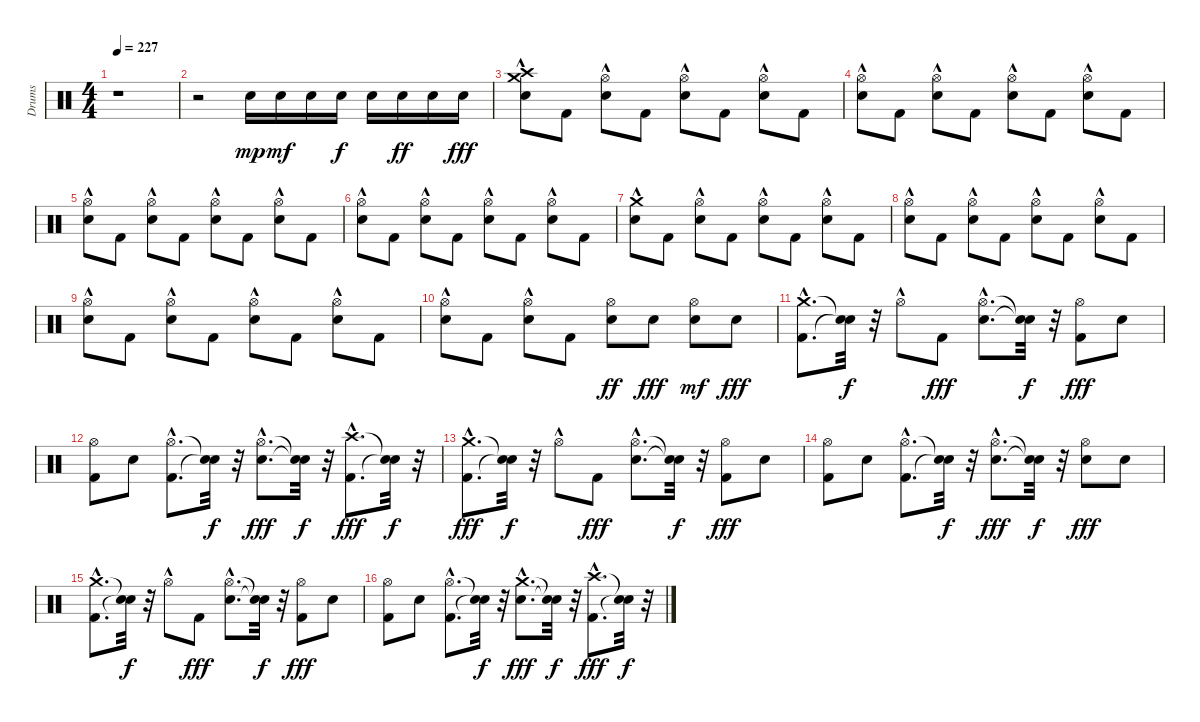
\track ("Drums" "Drums") {instrument percussion}
\staff {score}
\articulation defaults
\ts (4 4)
\tempo 227
\clef neutral
\ks c
r.1{dy fff} |
r.2 "Snare (hit) 2".16{dy mp} "Snare (hit) 2".16{dy mf} "Snare (hit) 2".16 "Snare (hit) 2".16{dy f} "Snare (hit) 2".16 "Snare (hit) 2".16{dy ff} "Snare (hit) 2".16 "Snare (hit) 2".16{dy fff} |
("Snare (hit) 2"{hac} "Crash medium (hit)"{hac} "Crash high (hit)"{hac}).8 "Kick (hit) 2".8 ("Snare (hit) 2"{hac} "Hi-Hat (open)"{hac}).8 "Kick (hit) 2".8 ("Snare (hit) 2"{hac} "Hi-Hat (open)"{hac}).8 "Kick (hit) 2".8 ("Snare (hit) 2"{hac} "Hi-Hat (open)"{hac}).8 "Kick (hit) 2".8 |
("Snare (hit) 2"{hac} "Hi-Hat (open)"{hac}).8 "Kick (hit) 2".8 ("Snare (hit) 2"{hac} "Hi-Hat (open)"{hac}).8 "Kick (hit) 2".8 ("Snare (hit) 2"{hac} "Hi-Hat (open)"{hac}).8 "Kick (hit) 2".8 ("Snare (hit) 2"{hac} "Hi-Hat (open)"{hac}).8 "Kick (hit) 2".8 |
("Snare (hit) 2"{hac} "Hi-Hat (open)"{hac}).8 "Kick (hit) 2".8 ("Snare (hit) 2"{hac} "Hi-Hat (open)"{hac}).8 "Kick (hit) 2".8 ("Snare (hit) 2"{hac} "Hi-Hat (open)"{hac}).8 "Kick (hit) 2".8 ("Snare (hit) 2"{hac} "Hi-Hat (open)"{hac}).8 "Kick (hit) 2".8 |
("Snare (hit) 2"{hac} "Hi-Hat (open)"{hac}).8 "Kick (hit) 2".8 ("Snare (hit) 2"{hac} "Hi-Hat (open)"{hac}).8 "Kick (hit) 2".8 ("Snare (hit) 2"{hac} "Hi-Hat (open)"{hac}).8 "Kick (hit) 2".8 ("Snare (hit) 2"{hac} "Hi-Hat (open)"{hac}).8 "Kick (hit) 2".8 |
("Snare (hit) 2"{hac} "Crash medium (hit)"{hac}).8 "Kick (hit) 2".8 ("Snare (hit) 2"{hac} "Hi-Hat (open)"{hac}).8 "Kick (hit) 2".8 ("Snare (hit) 2"{hac} "Hi-Hat (open)"{hac}).8 "Kick (hit) 2".8 ("Snare (hit) 2"{hac} "Hi-Hat (open)"{hac}).8 "Kick (hit) 2".8 |
("Snare (hit) 2"{hac} "Hi-Hat (open)"{hac}).8 "Kick (hit) 2".8 ("Snare (hit) 2"{hac} "Hi-Hat (open)"{hac}).8 "Kick (hit) 2".8 ("Snare (hit) 2"{hac} "Hi-Hat (open)"{hac}).8 "Kick (hit) 2".8 ("Snare (hit) 2"{hac} "Hi-Hat (open)"{hac}).8 "Kick (hit) 2".8 |
("Snare (hit) 2"{hac} "Hi-Hat (open)"{hac}).8 "Kick (hit) 2".8 ("Snare (hit) 2"{hac} "Hi-Hat (open)"{hac}).8 "Kick (hit) 2".8 ("Snare (hit) 2"{hac} "Hi-Hat (open)"{hac}).8 "Kick (hit) 2".8 ("Snare (hit) 2"{hac} "Hi-Hat (open)"{hac}).8 "Kick (hit) 2".8 |
("Snare (hit) 2"{hac} "Hi-Hat (open)"{hac}).8 "Kick (hit) 2".8 ("Snare (hit) 2"{hac} "Hi-Hat (open)"{hac}).8 "Kick (hit) 2".8 ("Snare (hit) 2" "Hi-Hat (open)").8{dy ff} "Snare (hit) 2".8{dy fff} ("Snare (hit) 2" "Hi-Hat (open)").8{dy mf} "Snare (hit) 2".8{dy fff} |
("Kick (hit) 2"{hac} "Crash medium (hit)"{hac}).8{d} ("Snare (hit)"{t} "Snare (hit)"{t}).32{dy f} r.32 "Hi-Hat (open)"{hac}.8 "Kick (hit) 2".8{dy fff} ("Snare (hit) 2"{hac} "Hi-Hat (open)"{hac}).8{d} ("Snare (hit)"{t} "Snare (hit)"{t}).32{dy f} r.32 ("Kick (hit) 2" "Hi-Hat (open)").8{dy fff} "Snare (hit) 2".8 |
("Kick (hit) 2" "Hi-Hat (open)").8 "Snare (hit) 2".8 ("Kick (hit) 2"{hac} "Hi-Hat (open)"{hac}).8{d} ("Snare (hit)"{t} "Snare (hit)"{t}).32{dy f} r.32 ("Snare (hit) 2"{hac} "Hi-Hat (open)"{hac}).8{d dy fff} ("Snare (hit)"{t} "Snare (hit)"{t}).32{dy f} r.32 ("Kick (hit) 2"{hac} "Crash high (hit)"{hac}).8{d dy fff} ("Snare (hit)"{t} "Snare (hit)"{t}).32{dy f} r.32 |
("Kick (hit) 2"{hac} "Crash medium (hit)"{hac}).8{d dy fff} ("Snare (hit)"{t} "Snare (hit)"{t}).32{dy f} r.32 "Hi-Hat (open)"{hac}.8 "Kick (hit) 2".8{dy fff} ("Snare (hit) 2"{hac} "Hi-Hat (open)"{hac}).8{d} ("Snare (hit)"{t} "Snare (hit)"{t}).32{dy f} r.32 ("Kick (hit) 2" "Hi-Hat (open)").8{dy fff} "Snare (hit) 2".8 |
("Kick (hit) 2" "Hi-Hat (open)").8 "Snare (hit) 2".8 ("Kick (hit) 2"{hac} "Hi-Hat (open)"{hac}).8{d} ("Snare (hit)"{t} "Snare (hit)"{t}).32{dy f} r.32 ("Snare (hit) 2"{hac} "Hi-Hat (open)"{hac}).8{d dy fff} ("Snare (hit)"{t} "Snare (hit)"{t}).32{dy f} r.32 ("Snare (hit) 2" "Hi-Hat (open)").8{dy fff} "Snare (hit) 2".8 |
("Kick (hit) 2"{hac} "Crash medium (hit)"{hac}).8{d} ("Snare (hit)"{t} "Snare (hit)"{t}).32{dy f} r.32 "Hi-Hat (open)"{hac}.8 "Kick (hit) 2".8{dy fff} ("Snare (hit) 2"{hac} "Hi-Hat (open)"{hac}).8{d} ("Snare (hit)"{t} "Snare (hit)"{t}).32{dy f} r.32 ("Kick (hit) 2" "Hi-Hat (open)").8{dy fff} "Snare (hit) 2".8 |
("Kick (hit) 2" "Hi-Hat (open)").8 "Snare (hit) 2".8 ("Kick (hit) 2"{hac} "Hi-Hat (open)"{hac}).8{d} ("Snare (hit)"{t} "Snare (hit)"{t}).32{dy f} r.32 ("Snare (hit) 2"{hac} "Crash medium (hit)"{hac}).8{d dy fff} ("Snare (hit)"{t} "Snare (hit)"{t}).32{dy f} r.32 ("Kick (hit) 2"{hac} "Crash high (hit)"{hac}).8{d dy fff} ("Snare (hit)"{t} "Snare (hit)"{t}).32{dy f} r.32
